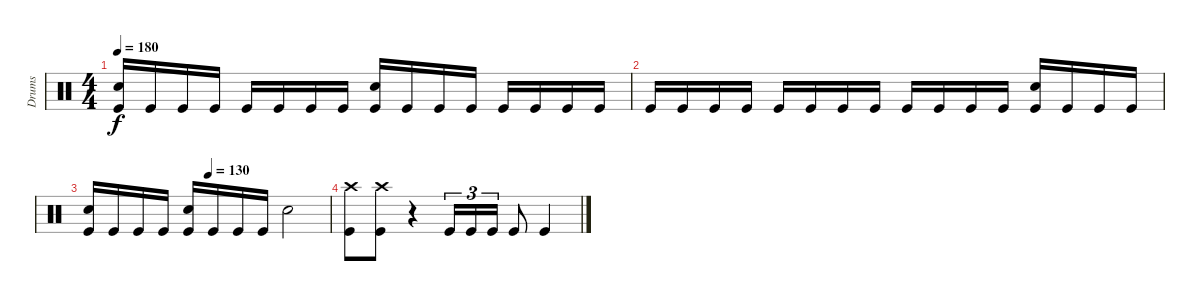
\track ("Drums" "Drums") {instrument percussion}
\staff {score}
\articulation defaults
\ts (4 4)
\tempo 180
\clef neutral
\ks c
("Kick (hit)" "Snare (hit) 2").16{dy f} "Kick (hit)".16 "Kick (hit)".16 "Kick (hit)".16 "Kick (hit)".16 "Kick (hit)".16 "Kick (hit)".16 "Kick (hit)".16 ("Kick (hit)" "Snare (hit) 2").16 "Kick (hit)".16 "Kick (hit)".16 "Kick (hit)".16 "Kick (hit)".16 "Kick (hit)".16 "Kick (hit)".16 "Kick (hit)".16 |
"Kick (hit)".16 "Kick (hit)".16 "Kick (hit)".16 "Kick (hit)".16 "Kick (hit)".16 "Kick (hit)".16 "Kick (hit)".16 "Kick (hit)".16 "Kick (hit)".16 "Kick (hit)".16 "Kick (hit)".16 "Kick (hit)".16 ("Kick (hit)" "Snare (hit) 2").16 "Kick (hit)".16 "Kick (hit)".16 "Kick (hit)".16 |
\tempo (130 0.5)
("Kick (hit)" "Snare (hit) 2").16 "Kick (hit)".16 "Kick (hit)".16 "Kick (hit)".16 ("Kick (hit)" "Snare (hit) 2").16 "Kick (hit)".16 "Kick (hit)".16 "Kick (hit)".16 "Snare (hit) 2".2 |
("Crash high (hit)" "Kick (hit)").8 ("Crash high (hit)" "Kick (hit)").8 r.4 "Kick (hit)".16{tu (3 2)} "Kick (hit)".16{tu (3 2)} "Kick (hit)".16{tu (3 2)} "Kick (hit)".8 "Kick (hit)".4
